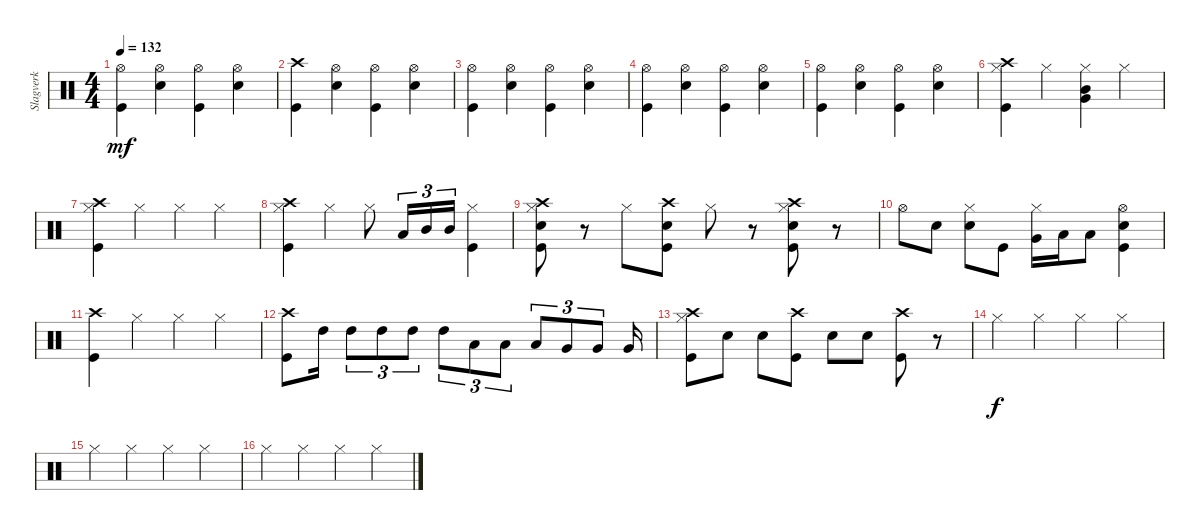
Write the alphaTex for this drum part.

\track ("Slagverk" "Slagverk") {instrument percussion}
\staff
\articulation defaults
\ts (4 4)
\tempo 132
\clef neutral
\ks c
("Hi-Hat (open)" "Kick (hit)").4{dy mf} ("Hi-Hat (open)" "Snare (hit) 2").4 ("Hi-Hat (open)" "Kick (hit)").4 ("Hi-Hat (open)" "Snare (hit) 2").4 |
("Crash high (hit)" "Kick (hit)").4 ("Hi-Hat (open)" "Snare (hit) 2").4 ("Hi-Hat (open)" "Kick (hit)").4 ("Hi-Hat (open)" "Snare (hit) 2").4 |
("Hi-Hat (open)" "Kick (hit)").4 ("Hi-Hat (open)" "Snare (hit) 2").4 ("Hi-Hat (open)" "Kick (hit)").4 ("Hi-Hat (open)" "Snare (hit) 2").4 |
("Hi-Hat (open)" "Kick (hit)").4 ("Hi-Hat (open)" "Snare (hit) 2").4 ("Hi-Hat (open)" "Kick (hit)").4 ("Hi-Hat (open)" "Snare (hit) 2").4 |
("Hi-Hat (open)" "Kick (hit)").4 ("Hi-Hat (open)" "Snare (hit) 2").4 ("Hi-Hat (open)" "Kick (hit)").4 ("Hi-Hat (open)" "Snare (hit) 2").4 |
("Crash high (hit)" "Hi-Hat (closed)" "Kick (hit)").4 "Hi-Hat (closed)".4 ("Hi-Hat (closed)" "Very Low Tom (hit)" "Mid Tom (hit)").4 "Hi-Hat (closed)".4 |
("Crash high (hit)" "Hi-Hat (closed)" "Kick (hit)").4 "Hi-Hat (closed)".4 "Hi-Hat (closed)".4 "Hi-Hat (closed)".4 |
("Crash high (hit)" "Hi-Hat (closed)" "Kick (hit)").4 "Hi-Hat (closed)".4 "Hi-Hat (closed)".8 "Low Tom (hit)".16{tu (3 2)} "Mid Tom (hit)".16{tu (3 2)} "Mid Tom (hit)".16{tu (3 2)} ("Hi-Hat (closed)" "Kick (hit)").4 |
("Crash high (hit)" "Snare (hit) 2" "Hi-Hat (closed)" "Kick (hit)").8 r.8 "Hi-Hat (closed)".8 ("Crash high (hit)" "Snare (hit) 2" "Kick (hit)").8 "Hi-Hat (closed)".8 r.8 ("Crash high (hit)" "Snare (hit) 2" "Hi-Hat (closed)" "Kick (hit)").8 r.8 |
"Hi-Hat (open)".8 "Snare (hit) 2".8 ("Hi-Hat (closed)" "Snare (hit) 2").8 "Kick (hit)".8 ("Hi-Hat (closed)" "Very Low Tom (hit)").16 "Low Tom (hit)".16 "Low Tom (hit)".8 ("Hi-Hat (open)" "Snare (hit) 2" "Kick (hit)").4 |
("Crash high (hit)" "Kick (hit)").4 "Hi-Hat (closed)".4 "Hi-Hat (closed)".4 "Hi-Hat (closed)".4 |
("Crash high (hit)" "Kick (hit)").8 "High Tom (hit)".16 "High Tom (hit)".8{tu (3 2)} "High Tom (hit)".8{tu (3 2)} "High Tom (hit)".8{tu (3 2)} "High Tom (hit)".8{tu (3 2)} "Low Tom (hit)".8{tu (3 2)} "Low Tom (hit)".8{tu (3 2)} "Low Tom (hit)".8{tu (3 2)} "Very Low Tom (hit)".8{tu (3 2)} "Very Low Tom (hit)".8{tu (3 2)} "Very Low Tom (hit)".16 |
("Crash high (hit)" "Hi-Hat (closed)" "Kick (hit)").8 "Snare (hit) 2".8 "Snare (hit) 2".8 ("Crash high (hit)" "Kick (hit)").8 "Snare (hit) 2".8 "Snare (hit) 2".8 ("Crash high (hit)" "Kick (hit)").8 r.8 |
"Hi-Hat (closed)".4{dy f} "Hi-Hat (closed)".4 "Hi-Hat (closed)".4 "Hi-Hat (closed)".4 |
"Hi-Hat (closed)".4 "Hi-Hat (closed)".4 "Hi-Hat (closed)".4 "Hi-Hat (closed)".4 |
"Hi-Hat (closed)".4 "Hi-Hat (closed)".4 "Hi-Hat (closed)".4 "Hi-Hat (closed)".4
